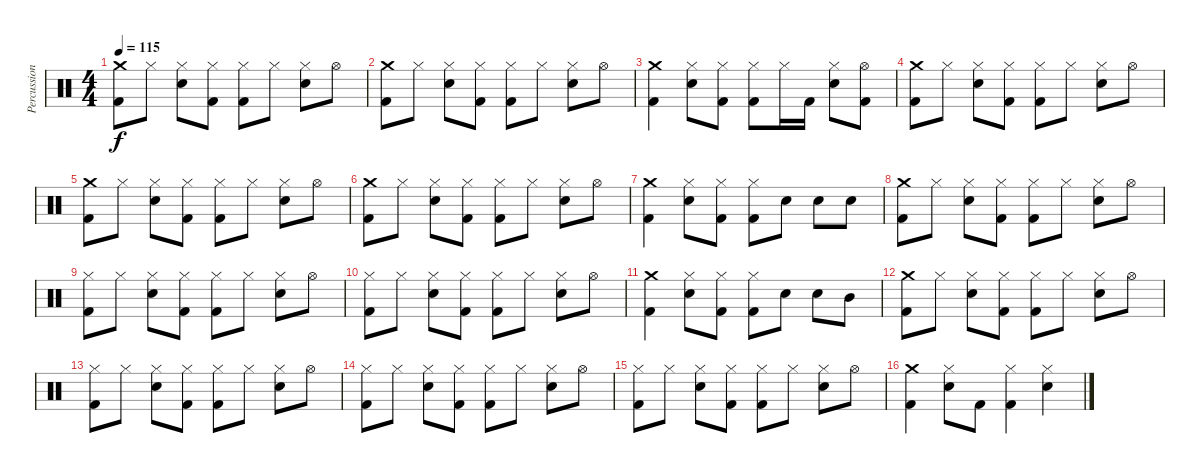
\track ("Percussion" "Percussion") {instrument percussion}
\staff {score}
\articulation defaults
\ts (4 4)
\tempo 115
\clef neutral
\ks c
("Crash medium (hit)" "Kick (hit) 2").8{dy f} "Hi-Hat (closed)".8 ("Hi-Hat (closed)" "Electric Snare (hit)").8 ("Hi-Hat (closed)" "Kick (hit) 2").8 ("Hi-Hat (closed)" "Kick (hit) 2").8 "Hi-Hat (closed)".8 ("Hi-Hat (closed)" "Electric Snare (hit)").8 "Hi-Hat (open)".8 |
("Crash medium (hit)" "Kick (hit) 2").8 "Hi-Hat (closed)".8 ("Hi-Hat (closed)" "Electric Snare (hit)").8 ("Hi-Hat (closed)" "Kick (hit) 2").8 ("Hi-Hat (closed)" "Kick (hit) 2").8 "Hi-Hat (closed)".8 ("Hi-Hat (closed)" "Electric Snare (hit)").8 "Hi-Hat (open)".8 |
("Crash medium (hit)" "Kick (hit) 2").4 ("Hi-Hat (closed)" "Electric Snare (hit)").8 ("Hi-Hat (closed)" "Kick (hit) 2").8 ("Hi-Hat (closed)" "Kick (hit) 2").8 "Hi-Hat (closed)".16 "Kick (hit) 2".16 ("Hi-Hat (closed)" "Electric Snare (hit)").8 ("Hi-Hat (open)" "Kick (hit) 2").8 |
("Crash medium (hit)" "Kick (hit) 2").8 "Hi-Hat (closed)".8 ("Hi-Hat (closed)" "Electric Snare (hit)").8 ("Hi-Hat (closed)" "Kick (hit) 2").8 ("Hi-Hat (closed)" "Kick (hit) 2").8 "Hi-Hat (closed)".8 ("Hi-Hat (closed)" "Electric Snare (hit)").8 "Hi-Hat (open)".8 |
("Crash medium (hit)" "Kick (hit) 2").8 "Hi-Hat (closed)".8 ("Hi-Hat (closed)" "Electric Snare (hit)").8 ("Hi-Hat (closed)" "Kick (hit) 2").8 ("Hi-Hat (closed)" "Kick (hit) 2").8 "Hi-Hat (closed)".8 ("Hi-Hat (closed)" "Electric Snare (hit)").8 "Hi-Hat (open)".8 |
("Crash medium (hit)" "Kick (hit) 2").8 "Hi-Hat (closed)".8 ("Hi-Hat (closed)" "Electric Snare (hit)").8 ("Hi-Hat (closed)" "Kick (hit) 2").8 ("Hi-Hat (closed)" "Kick (hit) 2").8 "Hi-Hat (closed)".8 ("Hi-Hat (closed)" "Electric Snare (hit)").8 "Hi-Hat (open)".8 |
("Crash medium (hit)" "Kick (hit) 2").4 ("Hi-Hat (closed)" "Electric Snare (hit)").8 ("Hi-Hat (closed)" "Kick (hit) 2").8 ("Hi-Hat (closed)" "Kick (hit) 2").8 "Electric Snare (hit)".8 "Electric Snare (hit)".8 "Electric Snare (hit)".8 |
("Crash medium (hit)" "Kick (hit) 2").8 "Hi-Hat (closed)".8 ("Hi-Hat (closed)" "Electric Snare (hit)").8 ("Hi-Hat (closed)" "Kick (hit) 2").8 ("Hi-Hat (closed)" "Kick (hit) 2").8 "Hi-Hat (closed)".8 ("Hi-Hat (closed)" "Electric Snare (hit)").8 "Hi-Hat (open)".8 |
("Hi-Hat (closed)" "Kick (hit) 2").8 "Hi-Hat (closed)".8 ("Hi-Hat (closed)" "Electric Snare (hit)").8 ("Hi-Hat (closed)" "Kick (hit) 2").8 ("Hi-Hat (closed)" "Kick (hit) 2").8 "Hi-Hat (closed)".8 ("Hi-Hat (closed)" "Electric Snare (hit)").8 "Hi-Hat (open)".8 |
("Hi-Hat (closed)" "Kick (hit) 2").8 "Hi-Hat (closed)".8 ("Hi-Hat (closed)" "Electric Snare (hit)").8 ("Hi-Hat (closed)" "Kick (hit) 2").8 ("Hi-Hat (closed)" "Kick (hit) 2").8 "Hi-Hat (closed)".8 ("Hi-Hat (closed)" "Electric Snare (hit)").8 "Hi-Hat (open)".8 |
("Crash medium (hit)" "Kick (hit) 2").4 ("Hi-Hat (closed)" "Electric Snare (hit)").8 ("Hi-Hat (closed)" "Kick (hit) 2").8 ("Hi-Hat (closed)" "Kick (hit) 2").8 "Electric Snare (hit)".8 "Electric Snare (hit)".8 "Mid Tom (hit)".8 |
("Crash medium (hit)" "Kick (hit) 2").8 "Hi-Hat (closed)".8 ("Hi-Hat (closed)" "Electric Snare (hit)").8 ("Hi-Hat (closed)" "Kick (hit) 2").8 ("Hi-Hat (closed)" "Kick (hit) 2").8 "Hi-Hat (closed)".8 ("Hi-Hat (closed)" "Electric Snare (hit)").8 "Hi-Hat (open)".8 |
("Hi-Hat (closed)" "Kick (hit) 2").8 "Hi-Hat (closed)".8 ("Hi-Hat (closed)" "Electric Snare (hit)").8 ("Hi-Hat (closed)" "Kick (hit) 2").8 ("Hi-Hat (closed)" "Kick (hit) 2").8 "Hi-Hat (closed)".8 ("Hi-Hat (closed)" "Electric Snare (hit)").8 "Hi-Hat (open)".8 |
("Hi-Hat (closed)" "Kick (hit) 2").8 "Hi-Hat (closed)".8 ("Hi-Hat (closed)" "Electric Snare (hit)").8 ("Hi-Hat (closed)" "Kick (hit) 2").8 ("Hi-Hat (closed)" "Kick (hit) 2").8 "Hi-Hat (closed)".8 ("Hi-Hat (closed)" "Electric Snare (hit)").8 "Hi-Hat (open)".8 |
("Hi-Hat (closed)" "Kick (hit) 2").8 "Hi-Hat (closed)".8 ("Hi-Hat (closed)" "Electric Snare (hit)").8 ("Hi-Hat (closed)" "Kick (hit) 2").8 ("Hi-Hat (closed)" "Kick (hit) 2").8 "Hi-Hat (closed)".8 ("Hi-Hat (closed)" "Electric Snare (hit)").8 "Hi-Hat (open)".8 |
("Crash medium (hit)" "Kick (hit) 2").4 ("Hi-Hat (closed)" "Electric Snare (hit)").8 "Kick (hit) 2".8 ("Hi-Hat (closed)" "Kick (hit) 2").4 ("Hi-Hat (closed)" "Electric Snare (hit)").4
